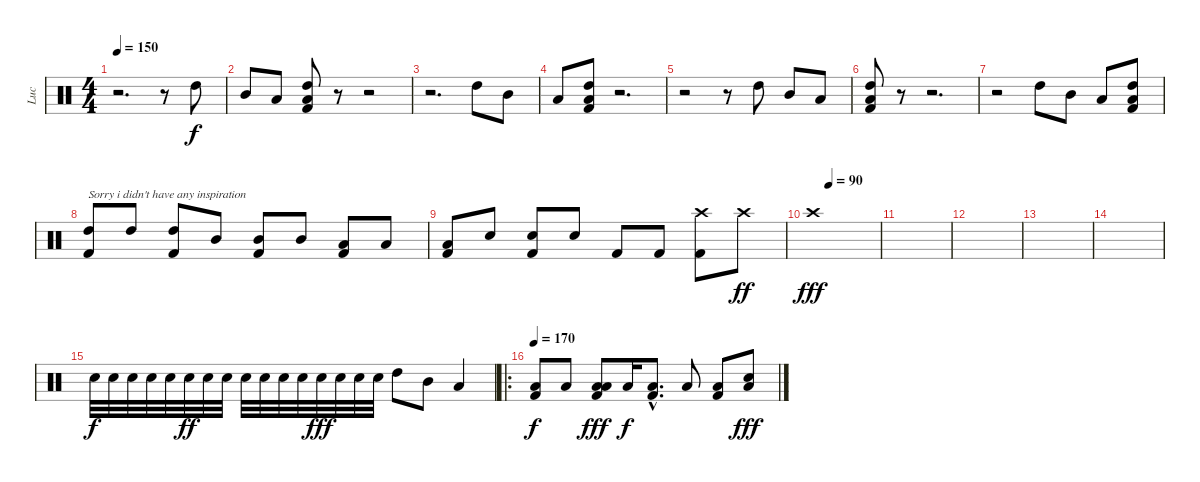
\track ("Luc" "Luc") {instrument percussion}
\staff {score}
\articulation defaults
\ts (4 4)
\tempo 150
\clef neutral
\ks c
r.2{d dy f} r.8 "High Tom (hit)".8 |
"Mid Tom (hit)".8 "Low Tom (hit)".8 ("High Tom (hit)" "Low Tom (hit)" "Kick (hit) 2").8 r.8 r.2 |
r.2{d} "High Tom (hit)".8 "Mid Tom (hit)".8 |
"Low Tom (hit)".8 ("High Tom (hit)" "Low Tom (hit)" "Kick (hit) 2").8 r.2{d} |
r.2 r.8 "High Tom (hit)".8 "Mid Tom (hit)".8 "Low Tom (hit)".8 |
("High Tom (hit)" "Low Tom (hit)" "Kick (hit) 2").8 r.8 r.2{d} |
r.2 "High Tom (hit)".8 "Mid Tom (hit)".8 "Low Tom (hit)".8 ("High Tom (hit)" "Low Tom (hit)" "Kick (hit) 2").8 |
("High Tom (hit)" "Kick (hit) 2").8{txt "Sorry i didn't have any inspiration"} "High Tom (hit)".8 ("High Tom (hit)" "Kick (hit) 2").8 "Mid Tom (hit)".8 ("Mid Tom (hit)" "Kick (hit) 2").8 "Mid Tom (hit)".8 ("Low Tom (hit)" "Kick (hit) 2").8 "Low Tom (hit)".8 |
("Low Tom (hit)" "Kick (hit) 2").8 "Snare (hit) 2".8 ("Snare (hit) 2" "Kick (hit) 2").8 "Snare (hit) 2".8 "Kick (hit) 2".8 "Kick (hit) 2".8 ("Crash high (hit)" "Kick (hit) 2").8 "Crash high (hit)".8{dy ff} |
\tempo (90 0.25)
"Crash high (hit)".1{dy fff} |
|
|
|
|
"Snare (hit) 2".32{dy f} "Snare (hit) 2".32 "Snare (hit) 2".32 "Snare (hit) 2".32 "Snare (hit) 2".32 "Snare (hit) 2".32{dy ff} "Snare (hit) 2".32 "Snare (hit) 2".32 "Snare (hit) 2".32 "Snare (hit) 2".32 "Snare (hit) 2".32 "Snare (hit) 2".32 "Snare (hit) 2".32{dy fff} "Snare (hit) 2".32 "Snare (hit) 2".32 "Snare (hit) 2".32 "High Tom (hit)".8 "Mid Tom (hit)".8 "Low Tom (hit)".4 |
\ro
\tempo 170
("Low Tom (hit)" "Kick (hit) 2").8{dy f} "Low Tom (hit)".8 ("Low Tom (hit)" "Low Tom (hit)" "Kick (hit) 2").8{dy fff} "Low Tom (hit)".16{dy f} ("Low Tom (hit)"{hac} "Kick (hit) 2"{hac}).8{d} "Low Tom (hit)".8 ("Low Tom (hit)" "Kick (hit) 2").8 ("Low Tom (hit)" "Snare (hit) 2").8{dy fff}
